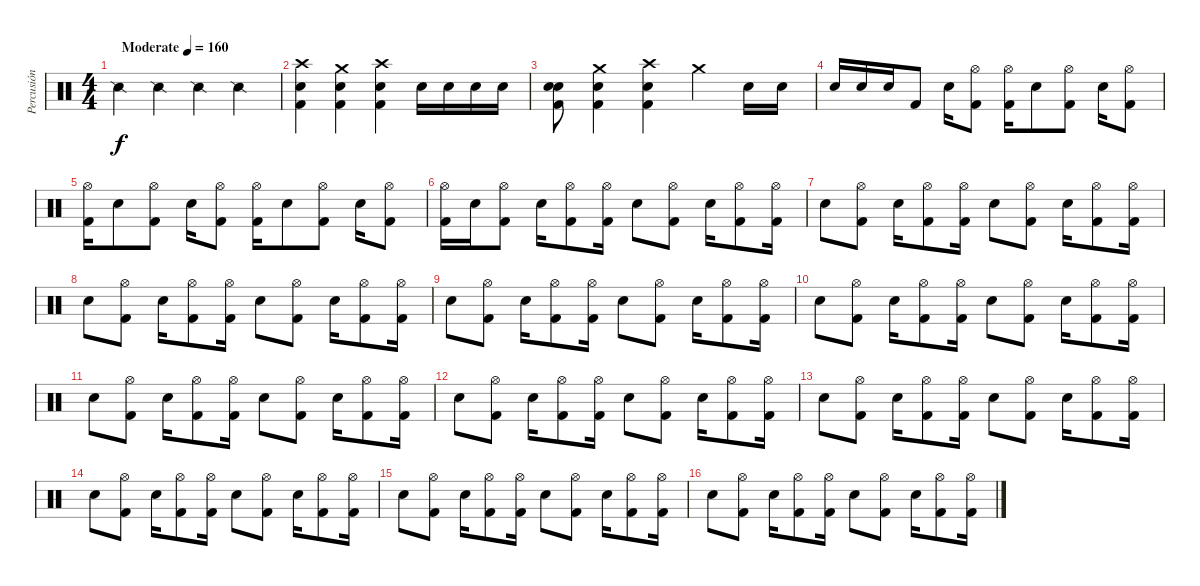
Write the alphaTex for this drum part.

\track ("Percusión" "Percusión") {instrument percussion}
\staff {score}
\articulation defaults
\ts (4 4)
\tempo (160 "Moderate")
\clef neutral
\ks c "Snare (side stick) 2".4{dy f} "Snare (side stick) 2".4 "Snare (side stick) 2".4 "Snare (side stick) 2".4
|
("Crash high (hit)" "Snare (hit) 2" "Kick (hit) 2").4 ("Crash medium (hit)" "Snare (hit) 2" "Kick (hit) 2").4 ("Crash high (hit)" "Snare (hit) 2" "Kick (hit) 2").4 "Electric Snare (hit)".16 "Electric Snare (hit)".16 "Electric Snare (hit)".16 "Electric Snare (hit)".16 |
("Electric Snare (hit)" "Snare (hit) 2" "Kick (hit) 2").8 ("Crash medium (hit)" "Snare (hit) 2" "Kick (hit) 2").4 ("Crash high (hit)" "Snare (hit) 2" "Kick (hit) 2").4 "Crash medium (hit)".4 "Electric Snare (hit)".16 "Electric Snare (hit)".16 |
"Electric Snare (hit)".16 "Electric Snare (hit)".16 "Electric Snare (hit)".16 "Kick (hit) 2".8 "Snare (hit) 2".16 ("Kick (hit) 2" "Hi-Hat (open)").8 ("Kick (hit) 2" "Hi-Hat (open)").16 "Snare (hit) 2".8 ("Kick (hit) 2" "Hi-Hat (open)").8 "Snare (hit) 2".16 ("Kick (hit) 2" "Hi-Hat (open)").8 |
("Kick (hit) 2" "Hi-Hat (open)").16 "Snare (hit) 2".8 ("Kick (hit) 2" "Hi-Hat (open)").8 "Snare (hit) 2".16 ("Kick (hit) 2" "Hi-Hat (open)").8 ("Kick (hit) 2" "Hi-Hat (open)").16 "Snare (hit) 2".8 ("Kick (hit) 2" "Hi-Hat (open)").8 "Snare (hit) 2".16 ("Kick (hit) 2" "Hi-Hat (open)").8 |
("Kick (hit) 2" "Hi-Hat (open)").16 "Snare (hit) 2".16 ("Kick (hit) 2" "Hi-Hat (open)").8 "Snare (hit) 2".16 ("Kick (hit) 2" "Hi-Hat (open)").8 ("Kick (hit) 2" "Hi-Hat (open)").16 "Snare (hit) 2".8 ("Kick (hit) 2" "Hi-Hat (open)").8 "Snare (hit) 2".16 ("Kick (hit) 2" "Hi-Hat (open)").8 ("Kick (hit) 2" "Hi-Hat (open)").16 |
"Snare (hit) 2".8 ("Kick (hit) 2" "Hi-Hat (open)").8 "Snare (hit) 2".16 ("Kick (hit) 2" "Hi-Hat (open)").8 ("Kick (hit) 2" "Hi-Hat (open)").16 "Snare (hit) 2".8 ("Kick (hit) 2" "Hi-Hat (open)").8 "Snare (hit) 2".16 ("Kick (hit) 2" "Hi-Hat (open)").8 ("Kick (hit) 2" "Hi-Hat (open)").16 |
"Snare (hit) 2".8 ("Kick (hit) 2" "Hi-Hat (open)").8 "Snare (hit) 2".16 ("Kick (hit) 2" "Hi-Hat (open)").8 ("Kick (hit) 2" "Hi-Hat (open)").16 "Snare (hit) 2".8 ("Kick (hit) 2" "Hi-Hat (open)").8 "Snare (hit) 2".16 ("Kick (hit) 2" "Hi-Hat (open)").8 ("Kick (hit) 2" "Hi-Hat (open)").16 |
"Snare (hit) 2".8 ("Kick (hit) 2" "Hi-Hat (open)").8 "Snare (hit) 2".16 ("Kick (hit) 2" "Hi-Hat (open)").8 ("Kick (hit) 2" "Hi-Hat (open)").16 "Snare (hit) 2".8 ("Kick (hit) 2" "Hi-Hat (open)").8 "Snare (hit) 2".16 ("Kick (hit) 2" "Hi-Hat (open)").8 ("Kick (hit) 2" "Hi-Hat (open)").16 |
"Snare (hit) 2".8 ("Kick (hit) 2" "Hi-Hat (open)").8 "Snare (hit) 2".16 ("Kick (hit) 2" "Hi-Hat (open)").8 ("Kick (hit) 2" "Hi-Hat (open)").16 "Snare (hit) 2".8 ("Kick (hit) 2" "Hi-Hat (open)").8 "Snare (hit) 2".16 ("Kick (hit) 2" "Hi-Hat (open)").8 ("Kick (hit) 2" "Hi-Hat (open)").16 |
"Snare (hit) 2".8 ("Kick (hit) 2" "Hi-Hat (open)").8 "Snare (hit) 2".16 ("Kick (hit) 2" "Hi-Hat (open)").8 ("Kick (hit) 2" "Hi-Hat (open)").16 "Snare (hit) 2".8 ("Kick (hit) 2" "Hi-Hat (open)").8 "Snare (hit) 2".16 ("Kick (hit) 2" "Hi-Hat (open)").8 ("Kick (hit) 2" "Hi-Hat (open)").16 |
"Snare (hit) 2".8 ("Kick (hit) 2" "Hi-Hat (open)").8 "Snare (hit) 2".16 ("Kick (hit) 2" "Hi-Hat (open)").8 ("Kick (hit) 2" "Hi-Hat (open)").16 "Snare (hit) 2".8 ("Kick (hit) 2" "Hi-Hat (open)").8 "Snare (hit) 2".16 ("Kick (hit) 2" "Hi-Hat (open)").8 ("Kick (hit) 2" "Hi-Hat (open)").16 |
"Snare (hit) 2".8 ("Kick (hit) 2" "Hi-Hat (open)").8 "Snare (hit) 2".16 ("Kick (hit) 2" "Hi-Hat (open)").8 ("Kick (hit) 2" "Hi-Hat (open)").16 "Snare (hit) 2".8 ("Kick (hit) 2" "Hi-Hat (open)").8 "Snare (hit) 2".16 ("Kick (hit) 2" "Hi-Hat (open)").8 ("Kick (hit) 2" "Hi-Hat (open)").16 |
"Snare (hit) 2".8 ("Kick (hit) 2" "Hi-Hat (open)").8 "Snare (hit) 2".16 ("Kick (hit) 2" "Hi-Hat (open)").8 ("Kick (hit) 2" "Hi-Hat (open)").16 "Snare (hit) 2".8 ("Kick (hit) 2" "Hi-Hat (open)").8 "Snare (hit) 2".16 ("Kick (hit) 2" "Hi-Hat (open)").8 ("Kick (hit) 2" "Hi-Hat (open)").16 |
"Snare (hit) 2".8 ("Kick (hit) 2" "Hi-Hat (open)").8 "Snare (hit) 2".16 ("Kick (hit) 2" "Hi-Hat (open)").8 ("Kick (hit) 2" "Hi-Hat (open)").16 "Snare (hit) 2".8 ("Kick (hit) 2" "Hi-Hat (open)").8 "Snare (hit) 2".16 ("Kick (hit) 2" "Hi-Hat (open)").8 ("Kick (hit) 2" "Hi-Hat (open)").16 |
"Snare (hit) 2".8 ("Kick (hit) 2" "Hi-Hat (open)").8 "Snare (hit) 2".16 ("Kick (hit) 2" "Hi-Hat (open)").8 ("Kick (hit) 2" "Hi-Hat (open)").16 "Snare (hit) 2".8 ("Kick (hit) 2" "Hi-Hat (open)").8 "Snare (hit) 2".16 ("Kick (hit) 2" "Hi-Hat (open)").8 ("Kick (hit) 2" "Hi-Hat (open)").16
